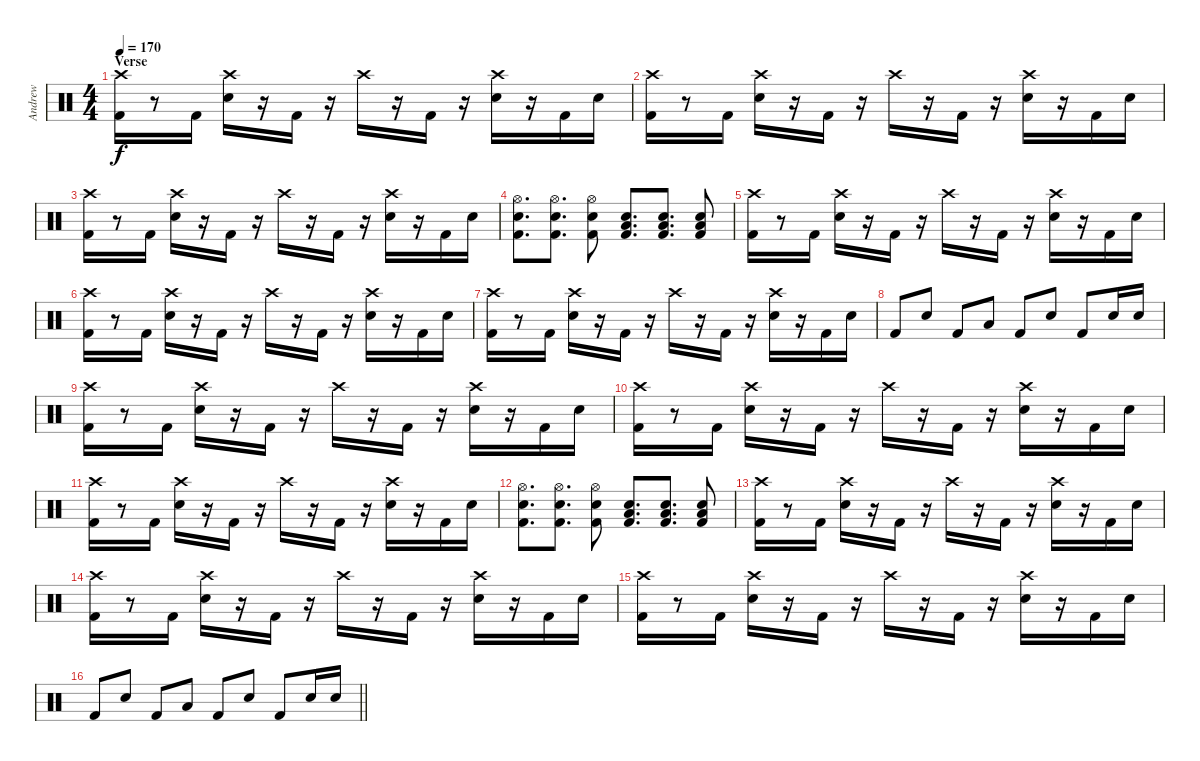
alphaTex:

\track ("Andrew" "Andrew") {instrument percussion}
\staff {score}
\articulation defaults
\ts (4 4)
\section ("" "Verse")
\tempo 170
\clef neutral
\ks c
("Crash high (hit)" "Kick (hit) 2").16{dy f} r.8 "Kick (hit) 2".16 ("Crash high (hit)" "Electric Snare (hit)").16 r.16 "Kick (hit) 2".16 r.16 "Crash high (hit)".16 r.16 "Kick (hit) 2".16 r.16 ("Crash high (hit)" "Electric Snare (hit)").16 r.16 "Kick (hit) 2".16 "Electric Snare (hit)".16 |
("Crash high (hit)" "Kick (hit) 2").16 r.8 "Kick (hit) 2".16 ("Crash high (hit)" "Electric Snare (hit)").16 r.16 "Kick (hit) 2".16 r.16 "Crash high (hit)".16 r.16 "Kick (hit) 2".16 r.16 ("Crash high (hit)" "Electric Snare (hit)").16 r.16 "Kick (hit) 2".16 "Electric Snare (hit)".16 |
("Crash high (hit)" "Kick (hit) 2").16 r.8 "Kick (hit) 2".16 ("Crash high (hit)" "Electric Snare (hit)").16 r.16 "Kick (hit) 2".16 r.16 "Crash high (hit)".16 r.16 "Kick (hit) 2".16 r.16 ("Crash high (hit)" "Electric Snare (hit)").16 r.16 "Kick (hit) 2".16 "Electric Snare (hit)".16 |
("Hi-Hat (open)" "Electric Snare (hit)" "Kick (hit) 2").8{d} ("Hi-Hat (open)" "Electric Snare (hit)" "Kick (hit) 2").8{d} ("Hi-Hat (open)" "Electric Snare (hit)" "Kick (hit) 2").8 ("Low Floor Tom (hit)" "Electric Snare (hit)" "Kick (hit) 2").8{d} ("Low Floor Tom (hit)" "Electric Snare (hit)" "Kick (hit) 2").8{d} ("Low Floor Tom (hit)" "Electric Snare (hit)" "Kick (hit) 2").8 |
("Crash high (hit)" "Kick (hit) 2").16 r.8 "Kick (hit) 2".16 ("Crash high (hit)" "Electric Snare (hit)").16 r.16 "Kick (hit) 2".16 r.16 "Crash high (hit)".16 r.16 "Kick (hit) 2".16 r.16 ("Crash high (hit)" "Electric Snare (hit)").16 r.16 "Kick (hit) 2".16 "Electric Snare (hit)".16 |
("Crash high (hit)" "Kick (hit) 2").16 r.8 "Kick (hit) 2".16 ("Crash high (hit)" "Electric Snare (hit)").16 r.16 "Kick (hit) 2".16 r.16 "Crash high (hit)".16 r.16 "Kick (hit) 2".16 r.16 ("Crash high (hit)" "Electric Snare (hit)").16 r.16 "Kick (hit) 2".16 "Electric Snare (hit)".16 |
("Crash high (hit)" "Kick (hit) 2").16 r.8 "Kick (hit) 2".16 ("Crash high (hit)" "Electric Snare (hit)").16 r.16 "Kick (hit) 2".16 r.16 "Crash high (hit)".16 r.16 "Kick (hit) 2".16 r.16 ("Crash high (hit)" "Electric Snare (hit)").16 r.16 "Kick (hit) 2".16 "Electric Snare (hit)".16 |
"Kick (hit) 2".8 "Electric Snare (hit)".8 "Kick (hit) 2".8 "Low Tom (hit)".8 "Kick (hit) 2".8 "Electric Snare (hit)".8 "Kick (hit) 2".8 "Electric Snare (hit)".16 "Electric Snare (hit)".16 |
("Crash high (hit)" "Kick (hit) 2").16 r.8 "Kick (hit) 2".16 ("Crash high (hit)" "Electric Snare (hit)").16 r.16 "Kick (hit) 2".16 r.16 "Crash high (hit)".16 r.16 "Kick (hit) 2".16 r.16 ("Crash high (hit)" "Electric Snare (hit)").16 r.16 "Kick (hit) 2".16 "Electric Snare (hit)".16 |
("Crash high (hit)" "Kick (hit) 2").16 r.8 "Kick (hit) 2".16 ("Crash high (hit)" "Electric Snare (hit)").16 r.16 "Kick (hit) 2".16 r.16 "Crash high (hit)".16 r.16 "Kick (hit) 2".16 r.16 ("Crash high (hit)" "Electric Snare (hit)").16 r.16 "Kick (hit) 2".16 "Electric Snare (hit)".16 |
("Crash high (hit)" "Kick (hit) 2").16 r.8 "Kick (hit) 2".16 ("Crash high (hit)" "Electric Snare (hit)").16 r.16 "Kick (hit) 2".16 r.16 "Crash high (hit)".16 r.16 "Kick (hit) 2".16 r.16 ("Crash high (hit)" "Electric Snare (hit)").16 r.16 "Kick (hit) 2".16 "Electric Snare (hit)".16 |
("Hi-Hat (open)" "Electric Snare (hit)" "Kick (hit) 2").8{d} ("Hi-Hat (open)" "Electric Snare (hit)" "Kick (hit) 2").8{d} ("Hi-Hat (open)" "Electric Snare (hit)" "Kick (hit) 2").8 ("Low Floor Tom (hit)" "Electric Snare (hit)" "Kick (hit) 2").8{d} ("Low Floor Tom (hit)" "Electric Snare (hit)" "Kick (hit) 2").8{d} ("Low Floor Tom (hit)" "Electric Snare (hit)" "Kick (hit) 2").8 |
("Crash high (hit)" "Kick (hit) 2").16 r.8 "Kick (hit) 2".16 ("Crash high (hit)" "Electric Snare (hit)").16 r.16 "Kick (hit) 2".16 r.16 "Crash high (hit)".16 r.16 "Kick (hit) 2".16 r.16 ("Crash high (hit)" "Electric Snare (hit)").16 r.16 "Kick (hit) 2".16 "Electric Snare (hit)".16 |
("Crash high (hit)" "Kick (hit) 2").16 r.8 "Kick (hit) 2".16 ("Crash high (hit)" "Electric Snare (hit)").16 r.16 "Kick (hit) 2".16 r.16 "Crash high (hit)".16 r.16 "Kick (hit) 2".16 r.16 ("Crash high (hit)" "Electric Snare (hit)").16 r.16 "Kick (hit) 2".16 "Electric Snare (hit)".16 |
("Crash high (hit)" "Kick (hit) 2").16 r.8 "Kick (hit) 2".16 ("Crash high (hit)" "Electric Snare (hit)").16 r.16 "Kick (hit) 2".16 r.16 "Crash high (hit)".16 r.16 "Kick (hit) 2".16 r.16 ("Crash high (hit)" "Electric Snare (hit)").16 r.16 "Kick (hit) 2".16 "Electric Snare (hit)".16 |
\barLineRight lightlight "Kick (hit) 2".8 "Electric Snare (hit)".8 "Kick (hit) 2".8 "Low Tom (hit)".8 "Kick (hit) 2".8 "Electric Snare (hit)".8 "Kick (hit) 2".8 "Electric Snare (hit)".16 "Electric Snare (hit)".16
